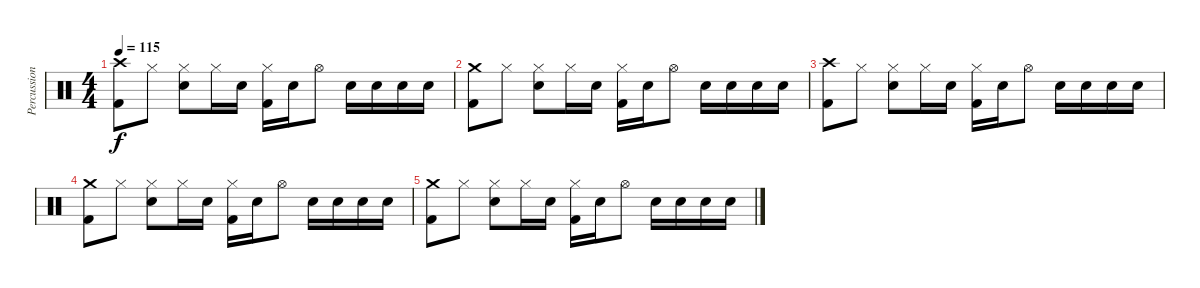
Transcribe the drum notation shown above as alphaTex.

\track ("Percussion" "Percussion") {instrument percussion}
\staff {score}
\articulation defaults
\ts (4 4)
\tempo 115
\clef neutral
\ks c
("Crash high (hit)" "Kick (hit) 2").8{dy f} "Hi-Hat (closed)".8 ("Hi-Hat (closed)" "Electric Snare (hit)").8 "Hi-Hat (closed)".16 "Electric Snare (hit)".16 ("Hi-Hat (closed)" "Kick (hit) 2").16 "Electric Snare (hit)".16 "Hi-Hat (open)".8 "Electric Snare (hit)".16 "Electric Snare (hit)".16 "Electric Snare (hit)".16 "Electric Snare (hit)".16 |
("Crash medium (hit)" "Kick (hit) 2").8 "Hi-Hat (closed)".8 ("Hi-Hat (closed)" "Electric Snare (hit)").8 "Hi-Hat (closed)".16 "Electric Snare (hit)".16 ("Hi-Hat (closed)" "Kick (hit) 2").16 "Electric Snare (hit)".16 "Hi-Hat (open)".8 "Electric Snare (hit)".16 "Electric Snare (hit)".16 "Electric Snare (hit)".16 "Electric Snare (hit)".16 |
("Crash high (hit)" "Kick (hit) 2").8 "Hi-Hat (closed)".8 ("Hi-Hat (closed)" "Electric Snare (hit)").8 "Hi-Hat (closed)".16 "Electric Snare (hit)".16 ("Hi-Hat (closed)" "Kick (hit) 2").16 "Electric Snare (hit)".16 "Hi-Hat (open)".8 "Electric Snare (hit)".16 "Electric Snare (hit)".16 "Electric Snare (hit)".16 "Electric Snare (hit)".16 |
("Crash medium (hit)" "Kick (hit) 2").8 "Hi-Hat (closed)".8 ("Hi-Hat (closed)" "Electric Snare (hit)").8 "Hi-Hat (closed)".16 "Electric Snare (hit)".16 ("Hi-Hat (closed)" "Kick (hit) 2").16 "Electric Snare (hit)".16 "Hi-Hat (open)".8 "Electric Snare (hit)".16 "Electric Snare (hit)".16 "Electric Snare (hit)".16 "Electric Snare (hit)".16 |
("Crash medium (hit)" "Kick (hit) 2").8 "Hi-Hat (closed)".8 ("Hi-Hat (closed)" "Electric Snare (hit)").8 "Hi-Hat (closed)".16 "Electric Snare (hit)".16 ("Hi-Hat (closed)" "Kick (hit) 2").16 "Electric Snare (hit)".16 "Hi-Hat (open)".8 "Electric Snare (hit)".16 "Electric Snare (hit)".16 "Electric Snare (hit)".16 "Electric Snare (hit)".16
